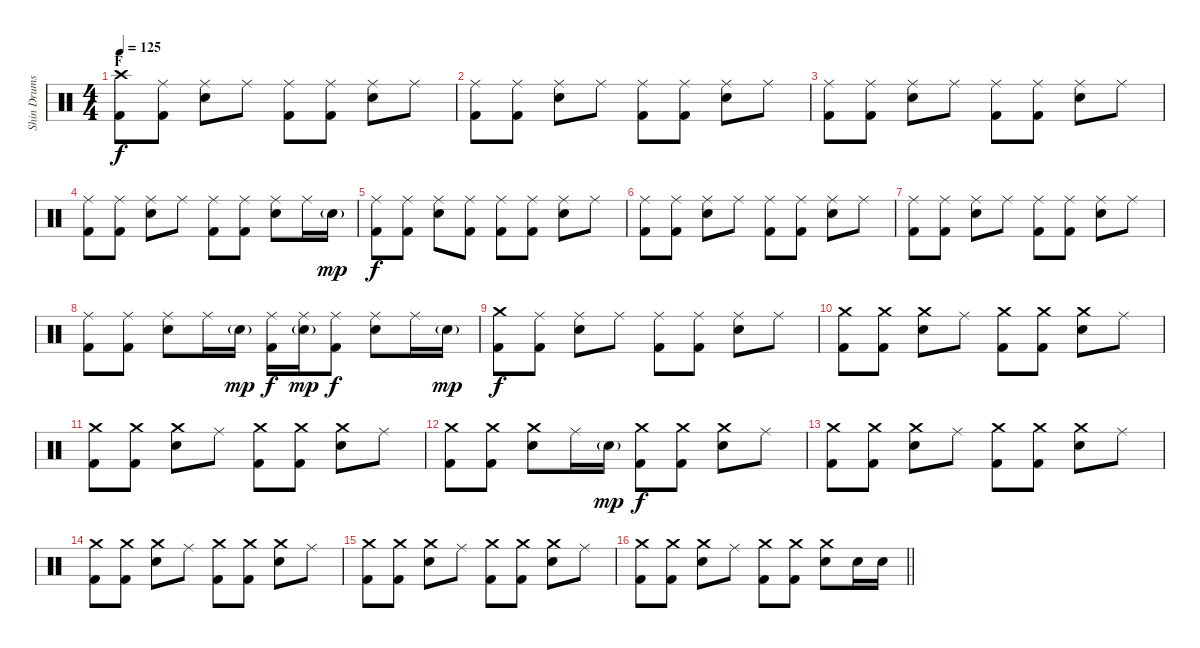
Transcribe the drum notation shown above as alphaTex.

\track ("Shin Drums" "Shin Drums") {instrument percussion}
\staff {score}
\articulation defaults
\ts (4 4)
\section ("" "F")
\tempo 125
\clef neutral
\ks c
("Crash high (hit)" "Kick (hit) 2").8{dy f} ("Ride (middle)" "Kick (hit) 2").8 ("Ride (middle)" "Snare (hit) 2").8 "Ride (middle)".8 ("Ride (middle)" "Kick (hit) 2").8 ("Ride (middle)" "Kick (hit) 2").8 ("Ride (middle)" "Snare (hit) 2").8 "Ride (middle)".8 |
("Ride (middle)" "Kick (hit) 2").8 ("Ride (middle)" "Kick (hit) 2").8 ("Ride (middle)" "Snare (hit) 2").8 "Ride (middle)".8 ("Ride (middle)" "Kick (hit) 2").8 ("Ride (middle)" "Kick (hit) 2").8 ("Ride (middle)" "Snare (hit) 2").8 "Ride (middle)".8 |
("Ride (middle)" "Kick (hit) 2").8 ("Ride (middle)" "Kick (hit) 2").8 ("Ride (middle)" "Snare (hit) 2").8 "Ride (middle)".8 ("Ride (middle)" "Kick (hit) 2").8 ("Ride (middle)" "Kick (hit) 2").8 ("Ride (middle)" "Snare (hit) 2").8 "Ride (middle)".8 |
("Ride (middle)" "Kick (hit) 2").8 ("Ride (middle)" "Kick (hit) 2").8 ("Ride (middle)" "Snare (hit) 2").8 "Ride (middle)".8 ("Ride (middle)" "Kick (hit) 2").8 ("Ride (middle)" "Kick (hit) 2").8 ("Ride (middle)" "Snare (hit) 2").8 "Ride (middle)".16 "Snare (hit) 2"{g}.16{dy mp} |
("Ride (middle)" "Kick (hit) 2").8{dy f} ("Ride (middle)" "Kick (hit) 2").8 ("Ride (middle)" "Snare (hit) 2").8 ("Ride (middle)" "Kick (hit) 2").8 ("Ride (middle)" "Kick (hit) 2").8 ("Ride (middle)" "Kick (hit) 2").8 ("Ride (middle)" "Snare (hit) 2").8 "Ride (middle)".8 |
("Ride (middle)" "Kick (hit) 2").8 ("Ride (middle)" "Kick (hit) 2").8 ("Ride (middle)" "Snare (hit) 2").8 "Ride (middle)".8 ("Ride (middle)" "Kick (hit) 2").8 ("Ride (middle)" "Kick (hit) 2").8 ("Ride (middle)" "Snare (hit) 2").8 "Ride (middle)".8 |
("Ride (middle)" "Kick (hit) 2").8 ("Ride (middle)" "Kick (hit) 2").8 ("Ride (middle)" "Snare (hit) 2").8 "Ride (middle)".8 ("Ride (middle)" "Kick (hit) 2").8 ("Ride (middle)" "Kick (hit) 2").8 ("Ride (middle)" "Snare (hit) 2").8 "Ride (middle)".8 |
("Ride (middle)" "Kick (hit) 2").8 ("Ride (middle)" "Kick (hit) 2").8 ("Ride (middle)" "Snare (hit) 2").8 "Ride (middle)".16 "Snare (hit) 2"{g}.16{dy mp} ("Ride (middle)" "Kick (hit) 2").16{dy f} ("Ride (middle)" "Snare (hit) 2"{g}).16{dy mp} ("Ride (middle)" "Kick (hit) 2").8{dy f} ("Ride (middle)" "Snare (hit) 2").8 "Ride (middle)".16 "Snare (hit) 2"{g}.16{dy mp} |
("Crash medium (hit)" "Kick (hit) 2").8{dy f} ("Ride (middle)" "Kick (hit) 2").8 ("Ride (middle)" "Snare (hit) 2").8 "Ride (middle)".8 ("Ride (middle)" "Kick (hit) 2").8 ("Ride (middle)" "Kick (hit) 2").8 ("Ride (middle)" "Snare (hit) 2").8 "Ride (middle)".8 |
("Crash medium (hit)" "Kick (hit) 2").8 ("Crash medium (hit)" "Kick (hit) 2").8 ("Crash medium (hit)" "Snare (hit) 2").8 "Ride (middle)".8 ("Crash medium (hit)" "Kick (hit) 2").8 ("Crash medium (hit)" "Kick (hit) 2").8 ("Crash medium (hit)" "Snare (hit) 2").8 "Ride (middle)".8 |
("Crash medium (hit)" "Kick (hit) 2").8 ("Crash medium (hit)" "Kick (hit) 2").8 ("Crash medium (hit)" "Snare (hit) 2").8 "Ride (middle)".8 ("Crash medium (hit)" "Kick (hit) 2").8 ("Crash medium (hit)" "Kick (hit) 2").8 ("Crash medium (hit)" "Snare (hit) 2").8 "Ride (middle)".8 |
("Crash medium (hit)" "Kick (hit) 2").8 ("Crash medium (hit)" "Kick (hit) 2").8 ("Crash medium (hit)" "Snare (hit) 2").8 "Ride (middle)".16 "Snare (hit) 2"{g}.16{dy mp} ("Crash medium (hit)" "Kick (hit) 2").8{dy f} ("Crash medium (hit)" "Kick (hit) 2").8 ("Crash medium (hit)" "Snare (hit) 2").8 "Ride (middle)".8 |
("Crash medium (hit)" "Kick (hit) 2").8 ("Crash medium (hit)" "Kick (hit) 2").8 ("Crash medium (hit)" "Snare (hit) 2").8 "Ride (middle)".8 ("Crash medium (hit)" "Kick (hit) 2").8 ("Crash medium (hit)" "Kick (hit) 2").8 ("Crash medium (hit)" "Snare (hit) 2").8 "Ride (middle)".8 |
("Crash medium (hit)" "Kick (hit) 2").8 ("Crash medium (hit)" "Kick (hit) 2").8 ("Crash medium (hit)" "Snare (hit) 2").8 "Ride (middle)".8 ("Crash medium (hit)" "Kick (hit) 2").8 ("Crash medium (hit)" "Kick (hit) 2").8 ("Crash medium (hit)" "Snare (hit) 2").8 "Ride (middle)".8 |
("Crash medium (hit)" "Kick (hit) 2").8 ("Crash medium (hit)" "Kick (hit) 2").8 ("Crash medium (hit)" "Snare (hit) 2").8 "Ride (middle)".8 ("Crash medium (hit)" "Kick (hit) 2").8 ("Crash medium (hit)" "Kick (hit) 2").8 ("Crash medium (hit)" "Snare (hit) 2").8 "Ride (middle)".8 |
\barLineRight lightlight
("Crash medium (hit)" "Kick (hit) 2").8 ("Crash medium (hit)" "Kick (hit) 2").8 ("Crash medium (hit)" "Snare (hit) 2").8 "Ride (middle)".8 ("Crash medium (hit)" "Kick (hit) 2").8 ("Crash medium (hit)" "Kick (hit) 2").8 ("Crash medium (hit)" "Snare (hit) 2").8 "Snare (hit) 2".16 "Snare (hit) 2".16
